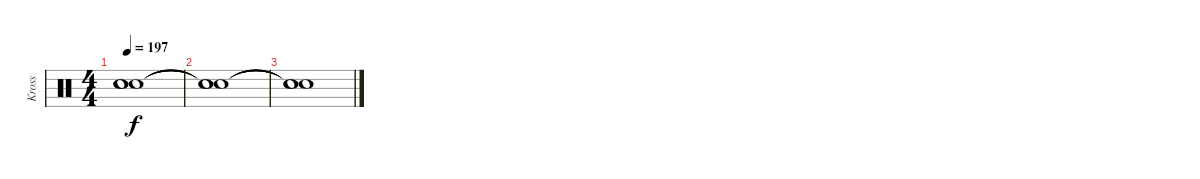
\track ("Kross" "Kross") {instrument percussion}
\staff {score}
\articulation defaults
\ts (4 4)
\tempo 197
\clef neutral
\ks c
("Snare (hit)"{t} "Snare (hit)"{t} "Snare (hit)"{t}).1{dy f} |
("Snare (hit)"{t} "Snare (hit)"{t} "Snare (hit)"{t}).1 |
("Snare (hit)"{t} "Snare (hit)"{t} "Snare (hit)"{t}).1
